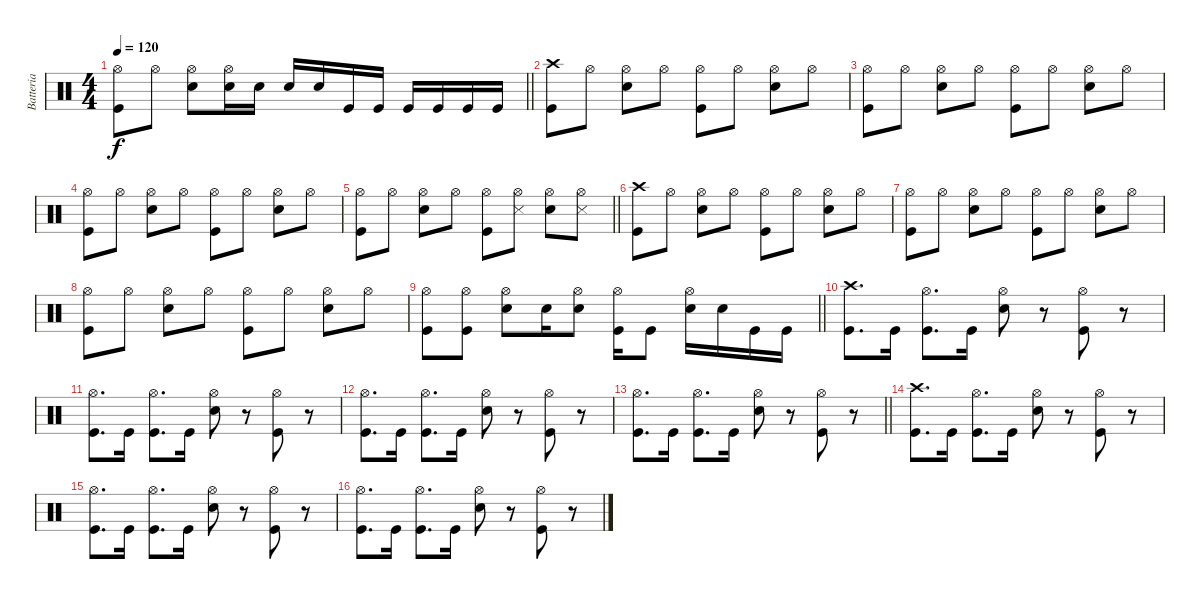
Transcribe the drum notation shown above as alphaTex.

\track ("Batteria" "Batteria") {instrument percussion}
\staff {score}
\articulation defaults
\ts (4 4)
\tempo 120
\clef neutral
\barLineRight lightlight
\ks c
("Kick (hit)" "Hi-Hat (open)").8{dy f} "Hi-Hat (open)".8 ("Snare (hit) 2" "Hi-Hat (open)").8 ("Snare (hit) 2" "Hi-Hat (open)").16 "Snare (hit) 2".16 "Snare (hit) 2".16 "Snare (hit) 2".16 "Kick (hit)".16 "Kick (hit)".16 "Kick (hit)".16 "Kick (hit)".16 "Kick (hit)".16 "Kick (hit)".16 |
("Kick (hit)" "Crash high (hit)").8 "Hi-Hat (open)".8 ("Snare (hit) 2" "Hi-Hat (open)").8 "Hi-Hat (open)".8 ("Kick (hit)" "Hi-Hat (open)").8 "Hi-Hat (open)".8 ("Snare (hit) 2" "Hi-Hat (open)").8 "Hi-Hat (open)".8 |
("Kick (hit)" "Hi-Hat (open)").8 "Hi-Hat (open)".8 ("Snare (hit) 2" "Hi-Hat (open)").8 "Hi-Hat (open)".8 ("Kick (hit)" "Hi-Hat (open)").8 "Hi-Hat (open)".8 ("Snare (hit) 2" "Hi-Hat (open)").8 "Hi-Hat (open)".8 |
("Kick (hit)" "Hi-Hat (open)").8 "Hi-Hat (open)".8 ("Snare (hit) 2" "Hi-Hat (open)").8 "Hi-Hat (open)".8 ("Kick (hit)" "Hi-Hat (open)").8 "Hi-Hat (open)".8 ("Snare (hit) 2" "Hi-Hat (open)").8 "Hi-Hat (open)".8 |
\barLineRight lightlight
("Kick (hit)" "Hi-Hat (open)").8 "Hi-Hat (open)".8 ("Snare (hit) 2" "Hi-Hat (open)").8 "Hi-Hat (open)".8 ("Kick (hit)" "Hi-Hat (open)").8 ("Hi-Hat (open)" "Snare (side stick) 3").8 ("Snare (hit) 2" "Hi-Hat (open)").8 ("Hi-Hat (open)" "Snare (side stick) 3").8 |
("Kick (hit)" "Crash high (hit)").8 "Hi-Hat (open)".8 ("Snare (hit) 2" "Hi-Hat (open)").8 "Hi-Hat (open)".8 ("Kick (hit)" "Hi-Hat (open)").8 "Hi-Hat (open)".8 ("Snare (hit) 2" "Hi-Hat (open)").8 "Hi-Hat (open)".8 |
("Kick (hit)" "Hi-Hat (open)").8 "Hi-Hat (open)".8 ("Snare (hit) 2" "Hi-Hat (open)").8 "Hi-Hat (open)".8 ("Kick (hit)" "Hi-Hat (open)").8 "Hi-Hat (open)".8 ("Snare (hit) 2" "Hi-Hat (open)").8 "Hi-Hat (open)".8 |
("Kick (hit)" "Hi-Hat (open)").8 "Hi-Hat (open)".8 ("Snare (hit) 2" "Hi-Hat (open)").8 "Hi-Hat (open)".8 ("Kick (hit)" "Hi-Hat (open)").8 "Hi-Hat (open)".8 ("Snare (hit) 2" "Hi-Hat (open)").8 "Hi-Hat (open)".8 |
\barLineRight lightlight
("Kick (hit)" "Hi-Hat (open)").8 ("Kick (hit)" "Hi-Hat (open)").8 ("Snare (hit) 2" "Hi-Hat (open)").8 "Snare (hit) 2".16 ("Snare (hit) 2" "Hi-Hat (open)").8 ("Kick (hit)" "Hi-Hat (open)").16 "Kick (hit)".8 ("Snare (hit) 2" "Hi-Hat (open)").16 "Snare (hit) 2".16 "Kick (hit)".16 "Kick (hit)".16 |
("Kick (hit)" "Crash high (hit)").8{d} "Kick (hit)".16 ("Kick (hit)" "Hi-Hat (open)").8{d} "Kick (hit)".16 ("Snare (hit) 2" "Hi-Hat (open)").8 r.8 ("Kick (hit)" "Hi-Hat (open)").8 r.8 |
("Kick (hit)" "Hi-Hat (open)").8{d} "Kick (hit)".16 ("Kick (hit)" "Hi-Hat (open)").8{d} "Kick (hit)".16 ("Snare (hit) 2" "Hi-Hat (open)").8 r.8 ("Kick (hit)" "Hi-Hat (open)").8 r.8 |
("Kick (hit)" "Hi-Hat (open)").8{d} "Kick (hit)".16 ("Kick (hit)" "Hi-Hat (open)").8{d} "Kick (hit)".16 ("Snare (hit) 2" "Hi-Hat (open)").8 r.8 ("Kick (hit)" "Hi-Hat (open)").8 r.8 |
\barLineRight lightlight
("Kick (hit)" "Hi-Hat (open)").8{d} "Kick (hit)".16 ("Kick (hit)" "Hi-Hat (open)").8{d} "Kick (hit)".16 ("Snare (hit) 2" "Hi-Hat (open)").8 r.8 ("Kick (hit)" "Hi-Hat (open)").8 r.8 |
("Kick (hit)" "Crash high (hit)").8{d} "Kick (hit)".16 ("Kick (hit)" "Hi-Hat (open)").8{d} "Kick (hit)".16 ("Snare (hit) 2" "Hi-Hat (open)").8 r.8 ("Kick (hit)" "Hi-Hat (open)").8 r.8 |
("Kick (hit)" "Hi-Hat (open)").8{d} "Kick (hit)".16 ("Kick (hit)" "Hi-Hat (open)").8{d} "Kick (hit)".16 ("Snare (hit) 2" "Hi-Hat (open)").8 r.8 ("Kick (hit)" "Hi-Hat (open)").8 r.8 |
("Kick (hit)" "Hi-Hat (open)").8{d} "Kick (hit)".16 ("Kick (hit)" "Hi-Hat (open)").8{d} "Kick (hit)".16 ("Snare (hit) 2" "Hi-Hat (open)").8 r.8 ("Kick (hit)" "Hi-Hat (open)").8 r.8
